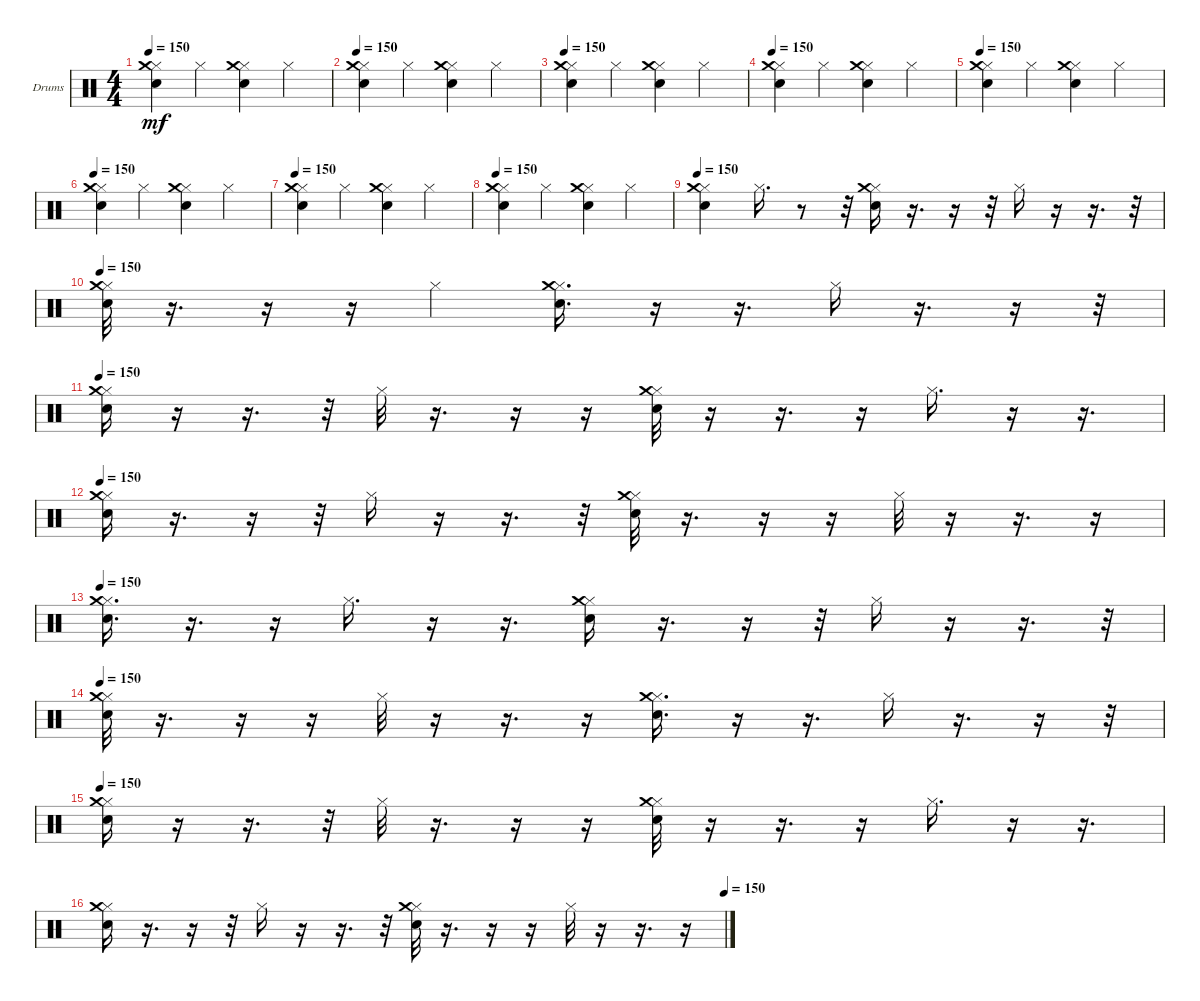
\bracketExtendMode groupsimilarinstruments
\firstSystemTrackNameOrientation horizontal
\otherSystemsTrackNameOrientation horizontal
\track ("Drums" "Drums") {instrument percussion}
\staff {score}
\articulation defaults
\ts (4 4)
\tempo 150
\clef neutral
\ks c
("Snare (hit) 2" "Hi-Hat (closed)" "Crash medium (hit)").4{dy mf} "Hi-Hat (closed)".4 ("Snare (hit) 2" "Hi-Hat (closed)" "Crash medium (hit)").4 "Hi-Hat (closed)".4 |
\tempo 150
("Snare (hit) 2" "Hi-Hat (closed)" "Crash medium (hit)").4 "Hi-Hat (closed)".4 ("Snare (hit) 2" "Hi-Hat (closed)" "Crash medium (hit)").4 "Hi-Hat (closed)".4 |
\tempo 150
("Snare (hit) 2" "Hi-Hat (closed)" "Crash medium (hit)").4 "Hi-Hat (closed)".4 ("Snare (hit) 2" "Hi-Hat (closed)" "Crash medium (hit)").4 "Hi-Hat (closed)".4 |
\tempo 150
("Snare (hit) 2" "Hi-Hat (closed)" "Crash medium (hit)").4 "Hi-Hat (closed)".4 ("Snare (hit) 2" "Hi-Hat (closed)" "Crash medium (hit)").4 "Hi-Hat (closed)".4 |
\tempo 150
("Snare (hit) 2" "Hi-Hat (closed)" "Crash medium (hit)").4 "Hi-Hat (closed)".4 ("Snare (hit) 2" "Hi-Hat (closed)" "Crash medium (hit)").4 "Hi-Hat (closed)".4 |
\tempo 150
("Snare (hit) 2" "Hi-Hat (closed)" "Crash medium (hit)").4 "Hi-Hat (closed)".4 ("Snare (hit) 2" "Hi-Hat (closed)" "Crash medium (hit)").4 "Hi-Hat (closed)".4 |
\tempo 150
("Snare (hit) 2" "Hi-Hat (closed)" "Crash medium (hit)").4 "Hi-Hat (closed)".4 ("Snare (hit) 2" "Hi-Hat (closed)" "Crash medium (hit)").4 "Hi-Hat (closed)".4 |
\tempo 150
("Snare (hit) 2" "Hi-Hat (closed)" "Crash medium (hit)").4 "Hi-Hat (closed)".4 ("Snare (hit) 2" "Hi-Hat (closed)" "Crash medium (hit)").4 "Hi-Hat (closed)".4 |
\tempo 150
("Snare (hit) 2" "Hi-Hat (closed)" "Crash medium (hit)").4 "Hi-Hat (closed)".16{d} r.8 r.32 ("Snare (hit) 2" "Hi-Hat (closed)" "Crash medium (hit)").16 r.16{d} r.16 r.32 "Hi-Hat (closed)".16 r.16 r.16{d} r.32 |
\tempo 150
("Snare (hit) 2" "Hi-Hat (closed)" "Crash medium (hit)").32 r.16{d} r.16 r.16 "Hi-Hat (closed)".4 ("Snare (hit) 2" "Hi-Hat (closed)" "Crash medium (hit)").16{d} r.16 r.16{d} "Hi-Hat (closed)".16 r.16{d} r.16 r.32 |
\tempo 150
("Snare (hit) 2" "Hi-Hat (closed)" "Crash medium (hit)").16 r.16 r.16{d} r.32 "Hi-Hat (closed)".32 r.16{d} r.16 r.16 ("Snare (hit) 2" "Hi-Hat (closed)" "Crash medium (hit)").32 r.16 r.16{d} r.16 "Hi-Hat (closed)".16{d} r.16 r.16{d} |
\tempo 150
("Snare (hit) 2" "Hi-Hat (closed)" "Crash medium (hit)").16 r.16{d} r.16 r.32 "Hi-Hat (closed)".16 r.16 r.16{d} r.32 ("Snare (hit) 2" "Hi-Hat (closed)" "Crash medium (hit)").32 r.16{d} r.16 r.16 "Hi-Hat (closed)".32 r.16 r.16{d} r.16 |
\tempo 150
("Snare (hit) 2" "Hi-Hat (closed)" "Crash medium (hit)").16{d} r.16{d} r.16 "Hi-Hat (closed)".16{d} r.16 r.16{d} ("Snare (hit) 2" "Hi-Hat (closed)" "Crash medium (hit)").16 r.16{d} r.16 r.32 "Hi-Hat (closed)".16 r.16 r.16{d} r.32 |
\tempo 150
("Snare (hit) 2" "Hi-Hat (closed)" "Crash medium (hit)").32 r.16{d} r.16 r.16 "Hi-Hat (closed)".32 r.16 r.16{d} r.16 ("Snare (hit) 2" "Hi-Hat (closed)" "Crash medium (hit)").16{d} r.16 r.16{d} "Hi-Hat (closed)".16 r.16{d} r.16 r.32 |
\tempo 150
("Snare (hit) 2" "Hi-Hat (closed)" "Crash medium (hit)").16 r.16 r.16{d} r.32 "Hi-Hat (closed)".32 r.16{d} r.16 r.16 ("Snare (hit) 2" "Hi-Hat (closed)" "Crash medium (hit)").32 r.16 r.16{d} r.16 "Hi-Hat (closed)".16{d} r.16 r.16{d} |
\tempo (150 1)
("Snare (hit) 2" "Hi-Hat (closed)" "Crash medium (hit)").16 r.16{d} r.16 r.32 "Hi-Hat (closed)".16 r.16 r.16{d} r.32 ("Snare (hit) 2" "Hi-Hat (closed)" "Crash medium (hit)").32 r.16{d} r.16 r.16 "Hi-Hat (closed)".32 r.16 r.16{d} r.16
